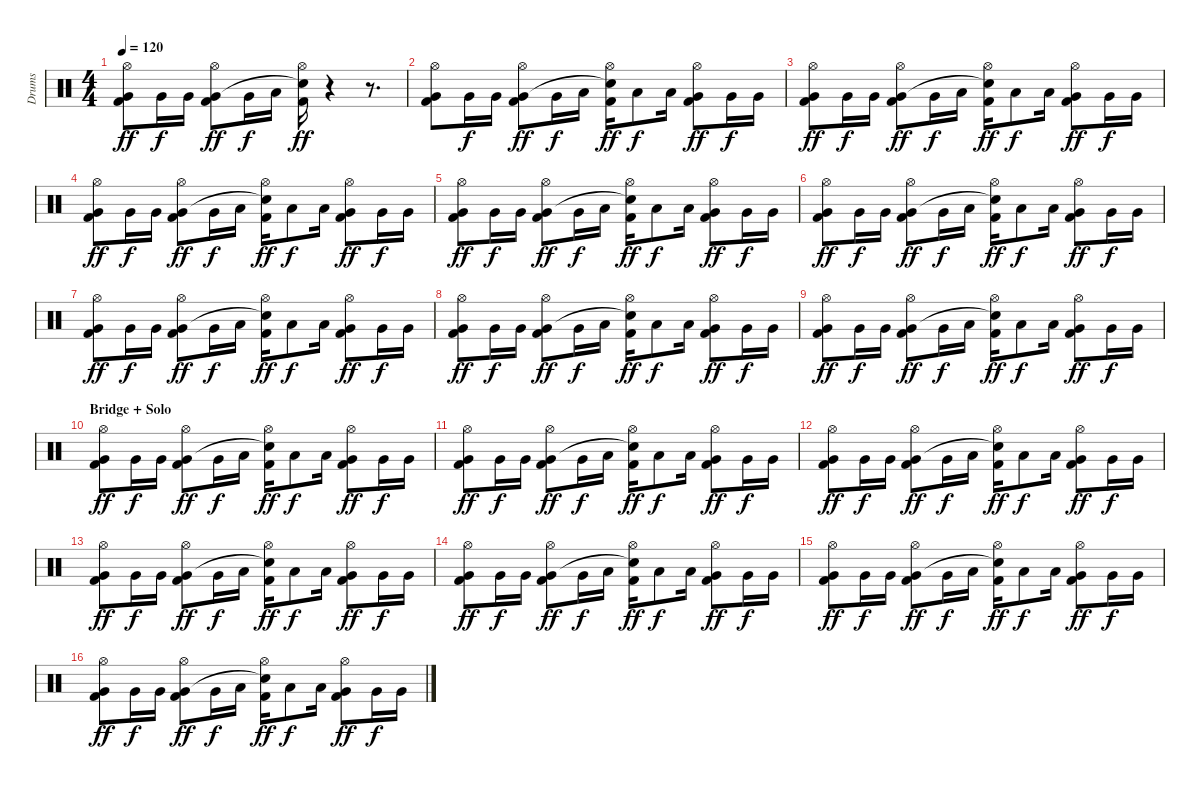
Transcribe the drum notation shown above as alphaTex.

\track ("Drums" "Drums") {instrument percussion}
\staff {score}
\articulation defaults
\ts (4 4)
\tempo 120
\clef neutral
\ks c
("Hi-Hat (open)" "Very Low Tom (hit)" "Kick (hit) 2").8{dy ff} "Very Low Tom (hit)".16{dy f} "Very Low Tom (hit)".16 ("Hi-Hat (open)" "Very Low Tom (hit)" "Kick (hit) 2").8{dy ff} "Very Low Tom (hit)".16{dy f} "Low Tom (hit)".16 ("Hi-Hat (open)" "Snare (hit)"{t} "Kick (hit) 2").16{dy ff} r.4 r.8{d} |
("Hi-Hat (open)" "Very Low Tom (hit)" "Kick (hit) 2").8 "Very Low Tom (hit)".16{dy f} "Very Low Tom (hit)".16 ("Hi-Hat (open)" "Very Low Tom (hit)" "Kick (hit) 2").8{dy ff} "Very Low Tom (hit)".16{dy f} "Low Tom (hit)".16 ("Hi-Hat (open)" "Snare (hit)"{t} "Kick (hit) 2").16{dy ff} "Low Tom (hit)".8{dy f} "Low Tom (hit)".16 ("Hi-Hat (open)" "Very Low Tom (hit)" "Kick (hit) 2").8{dy ff} "Very Low Tom (hit)".16{dy f} "Very Low Tom (hit)".16 |
("Hi-Hat (open)" "Very Low Tom (hit)" "Kick (hit) 2").8{dy ff} "Very Low Tom (hit)".16{dy f} "Very Low Tom (hit)".16 ("Hi-Hat (open)" "Very Low Tom (hit)" "Kick (hit) 2").8{dy ff} "Very Low Tom (hit)".16{dy f} "Low Tom (hit)".16 ("Hi-Hat (open)" "Snare (hit)"{t} "Kick (hit) 2").16{dy ff} "Low Tom (hit)".8{dy f} "Low Tom (hit)".16 ("Hi-Hat (open)" "Very Low Tom (hit)" "Kick (hit) 2").8{dy ff} "Very Low Tom (hit)".16{dy f} "Very Low Tom (hit)".16 |
("Hi-Hat (open)" "Very Low Tom (hit)" "Kick (hit) 2").8{dy ff} "Very Low Tom (hit)".16{dy f} "Very Low Tom (hit)".16 ("Hi-Hat (open)" "Very Low Tom (hit)" "Kick (hit) 2").8{dy ff} "Very Low Tom (hit)".16{dy f} "Low Tom (hit)".16 ("Hi-Hat (open)" "Snare (hit)"{t} "Kick (hit) 2").16{dy ff} "Low Tom (hit)".8{dy f} "Low Tom (hit)".16 ("Hi-Hat (open)" "Very Low Tom (hit)" "Kick (hit) 2").8{dy ff} "Very Low Tom (hit)".16{dy f} "Very Low Tom (hit)".16 |
("Hi-Hat (open)" "Very Low Tom (hit)" "Kick (hit) 2").8{dy ff} "Very Low Tom (hit)".16{dy f} "Very Low Tom (hit)".16 ("Hi-Hat (open)" "Very Low Tom (hit)" "Kick (hit) 2").8{dy ff} "Very Low Tom (hit)".16{dy f} "Low Tom (hit)".16 ("Hi-Hat (open)" "Snare (hit)"{t} "Kick (hit) 2").16{dy ff} "Low Tom (hit)".8{dy f} "Low Tom (hit)".16 ("Hi-Hat (open)" "Very Low Tom (hit)" "Kick (hit) 2").8{dy ff} "Very Low Tom (hit)".16{dy f} "Very Low Tom (hit)".16 |
("Hi-Hat (open)" "Very Low Tom (hit)" "Kick (hit) 2").8{dy ff} "Very Low Tom (hit)".16{dy f} "Very Low Tom (hit)".16 ("Hi-Hat (open)" "Very Low Tom (hit)" "Kick (hit) 2").8{dy ff} "Very Low Tom (hit)".16{dy f} "Low Tom (hit)".16 ("Hi-Hat (open)" "Snare (hit)"{t} "Kick (hit) 2").16{dy ff} "Low Tom (hit)".8{dy f} "Low Tom (hit)".16 ("Hi-Hat (open)" "Very Low Tom (hit)" "Kick (hit) 2").8{dy ff} "Very Low Tom (hit)".16{dy f} "Very Low Tom (hit)".16 |
("Hi-Hat (open)" "Very Low Tom (hit)" "Kick (hit) 2").8{dy ff} "Very Low Tom (hit)".16{dy f} "Very Low Tom (hit)".16 ("Hi-Hat (open)" "Very Low Tom (hit)" "Kick (hit) 2").8{dy ff} "Very Low Tom (hit)".16{dy f} "Low Tom (hit)".16 ("Hi-Hat (open)" "Snare (hit)"{t} "Kick (hit) 2").16{dy ff} "Low Tom (hit)".8{dy f} "Low Tom (hit)".16 ("Hi-Hat (open)" "Very Low Tom (hit)" "Kick (hit) 2").8{dy ff} "Very Low Tom (hit)".16{dy f} "Very Low Tom (hit)".16 |
("Hi-Hat (open)" "Very Low Tom (hit)" "Kick (hit) 2").8{dy ff} "Very Low Tom (hit)".16{dy f} "Very Low Tom (hit)".16 ("Hi-Hat (open)" "Very Low Tom (hit)" "Kick (hit) 2").8{dy ff} "Very Low Tom (hit)".16{dy f} "Low Tom (hit)".16 ("Hi-Hat (open)" "Snare (hit)"{t} "Kick (hit) 2").16{dy ff} "Low Tom (hit)".8{dy f} "Low Tom (hit)".16 ("Hi-Hat (open)" "Very Low Tom (hit)" "Kick (hit) 2").8{dy ff} "Very Low Tom (hit)".16{dy f} "Very Low Tom (hit)".16 |
("Hi-Hat (open)" "Very Low Tom (hit)" "Kick (hit) 2").8{dy ff} "Very Low Tom (hit)".16{dy f} "Very Low Tom (hit)".16 ("Hi-Hat (open)" "Very Low Tom (hit)" "Kick (hit) 2").8{dy ff} "Very Low Tom (hit)".16{dy f} "Low Tom (hit)".16 ("Hi-Hat (open)" "Snare (hit)"{t} "Kick (hit) 2").16{dy ff} "Low Tom (hit)".8{dy f} "Low Tom (hit)".16 ("Hi-Hat (open)" "Very Low Tom (hit)" "Kick (hit) 2").8{dy ff} "Very Low Tom (hit)".16{dy f} "Very Low Tom (hit)".16 |
\section ("" "Bridge + Solo")
("Hi-Hat (open)" "Very Low Tom (hit)" "Kick (hit) 2").8{dy ff} "Very Low Tom (hit)".16{dy f} "Very Low Tom (hit)".16 ("Hi-Hat (open)" "Very Low Tom (hit)" "Kick (hit) 2").8{dy ff} "Very Low Tom (hit)".16{dy f} "Low Tom (hit)".16 ("Hi-Hat (open)" "Snare (hit)"{t} "Kick (hit) 2").16{dy ff} "Low Tom (hit)".8{dy f} "Low Tom (hit)".16 ("Hi-Hat (open)" "Very Low Tom (hit)" "Kick (hit) 2").8{dy ff} "Very Low Tom (hit)".16{dy f} "Very Low Tom (hit)".16 |
("Hi-Hat (open)" "Very Low Tom (hit)" "Kick (hit) 2").8{dy ff} "Very Low Tom (hit)".16{dy f} "Very Low Tom (hit)".16 ("Hi-Hat (open)" "Very Low Tom (hit)" "Kick (hit) 2").8{dy ff} "Very Low Tom (hit)".16{dy f} "Low Tom (hit)".16 ("Hi-Hat (open)" "Snare (hit)"{t} "Kick (hit) 2").16{dy ff} "Low Tom (hit)".8{dy f} "Low Tom (hit)".16 ("Hi-Hat (open)" "Very Low Tom (hit)" "Kick (hit) 2").8{dy ff} "Very Low Tom (hit)".16{dy f} "Very Low Tom (hit)".16 |
("Hi-Hat (open)" "Very Low Tom (hit)" "Kick (hit) 2").8{dy ff} "Very Low Tom (hit)".16{dy f} "Very Low Tom (hit)".16 ("Hi-Hat (open)" "Very Low Tom (hit)" "Kick (hit) 2").8{dy ff} "Very Low Tom (hit)".16{dy f} "Low Tom (hit)".16 ("Hi-Hat (open)" "Snare (hit)"{t} "Kick (hit) 2").16{dy ff} "Low Tom (hit)".8{dy f} "Low Tom (hit)".16 ("Hi-Hat (open)" "Very Low Tom (hit)" "Kick (hit) 2").8{dy ff} "Very Low Tom (hit)".16{dy f} "Very Low Tom (hit)".16 |
("Hi-Hat (open)" "Very Low Tom (hit)" "Kick (hit) 2").8{dy ff} "Very Low Tom (hit)".16{dy f} "Very Low Tom (hit)".16 ("Hi-Hat (open)" "Very Low Tom (hit)" "Kick (hit) 2").8{dy ff} "Very Low Tom (hit)".16{dy f} "Low Tom (hit)".16 ("Hi-Hat (open)" "Snare (hit)"{t} "Kick (hit) 2").16{dy ff} "Low Tom (hit)".8{dy f} "Low Tom (hit)".16 ("Hi-Hat (open)" "Very Low Tom (hit)" "Kick (hit) 2").8{dy ff} "Very Low Tom (hit)".16{dy f} "Very Low Tom (hit)".16 |
("Hi-Hat (open)" "Very Low Tom (hit)" "Kick (hit) 2").8{dy ff} "Very Low Tom (hit)".16{dy f} "Very Low Tom (hit)".16 ("Hi-Hat (open)" "Very Low Tom (hit)" "Kick (hit) 2").8{dy ff} "Very Low Tom (hit)".16{dy f} "Low Tom (hit)".16 ("Hi-Hat (open)" "Snare (hit)"{t} "Kick (hit) 2").16{dy ff} "Low Tom (hit)".8{dy f} "Low Tom (hit)".16 ("Hi-Hat (open)" "Very Low Tom (hit)" "Kick (hit) 2").8{dy ff} "Very Low Tom (hit)".16{dy f} "Very Low Tom (hit)".16 |
("Hi-Hat (open)" "Very Low Tom (hit)" "Kick (hit) 2").8{dy ff} "Very Low Tom (hit)".16{dy f} "Very Low Tom (hit)".16 ("Hi-Hat (open)" "Very Low Tom (hit)" "Kick (hit) 2").8{dy ff} "Very Low Tom (hit)".16{dy f} "Low Tom (hit)".16 ("Hi-Hat (open)" "Snare (hit)"{t} "Kick (hit) 2").16{dy ff} "Low Tom (hit)".8{dy f} "Low Tom (hit)".16 ("Hi-Hat (open)" "Very Low Tom (hit)" "Kick (hit) 2").8{dy ff} "Very Low Tom (hit)".16{dy f} "Very Low Tom (hit)".16 |
("Hi-Hat (open)" "Very Low Tom (hit)" "Kick (hit) 2").8{dy ff} "Very Low Tom (hit)".16{dy f} "Very Low Tom (hit)".16 ("Hi-Hat (open)" "Very Low Tom (hit)" "Kick (hit) 2").8{dy ff} "Very Low Tom (hit)".16{dy f} "Low Tom (hit)".16 ("Hi-Hat (open)" "Snare (hit)"{t} "Kick (hit) 2").16{dy ff} "Low Tom (hit)".8{dy f} "Low Tom (hit)".16 ("Hi-Hat (open)" "Very Low Tom (hit)" "Kick (hit) 2").8{dy ff} "Very Low Tom (hit)".16{dy f} "Very Low Tom (hit)".16
